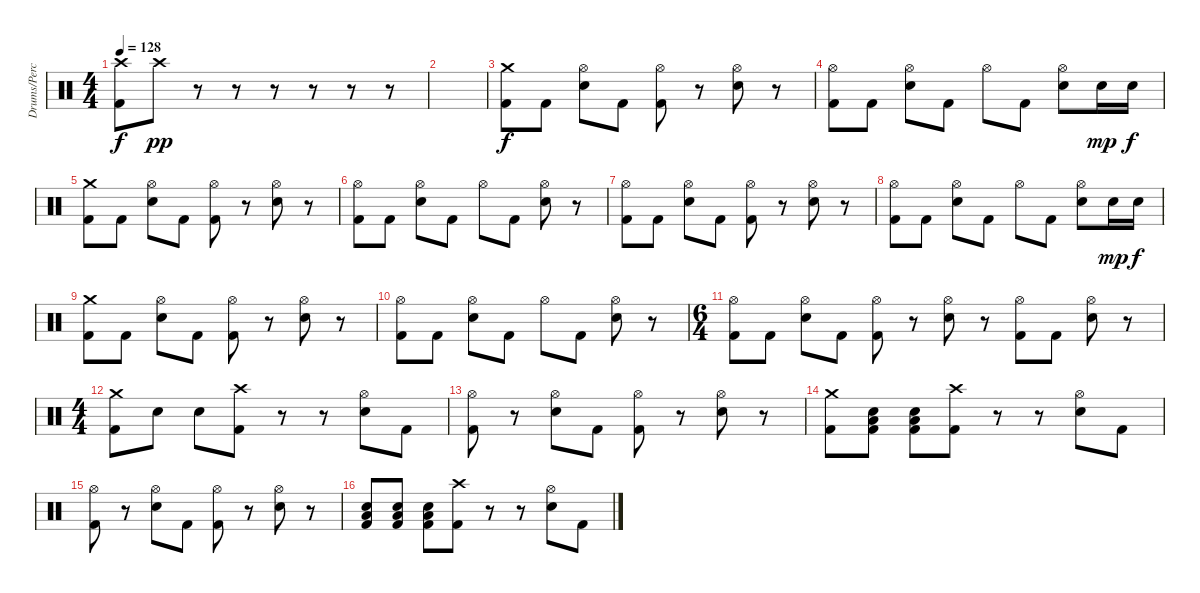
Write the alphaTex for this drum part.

\track ("Drums/Percussion" "Drums/Perc") {instrument percussion}
\staff {score}
\articulation defaults
\ts (4 4)
\tempo 128
\clef neutral
\ks c
("Crash high (hit)" "Kick (hit) 2").8{dy f} "Crash high (hit)".8{dy pp} r.8 r.8 r.8 r.8 r.8 r.8 |
|
("Crash medium (hit)" "Kick (hit) 2").8{dy f} "Kick (hit) 2".8 ("Hi-Hat (open)" "Electric Snare (hit)").8 "Kick (hit) 2".8 ("Hi-Hat (open)" "Kick (hit) 2").8 r.8 ("Hi-Hat (open)" "Electric Snare (hit)").8 r.8 |
("Hi-Hat (open)" "Kick (hit) 2").8 "Kick (hit) 2".8 ("Hi-Hat (open)" "Electric Snare (hit)").8 "Kick (hit) 2".8 "Hi-Hat (open)".8 "Kick (hit) 2".8 ("Hi-Hat (open)" "Electric Snare (hit)").8 "Electric Snare (hit)".16{dy mp} "Electric Snare (hit)".16{dy f} |
("Crash medium (hit)" "Kick (hit) 2").8 "Kick (hit) 2".8 ("Hi-Hat (open)" "Electric Snare (hit)").8 "Kick (hit) 2".8 ("Hi-Hat (open)" "Kick (hit) 2").8 r.8 ("Hi-Hat (open)" "Electric Snare (hit)").8 r.8 |
("Hi-Hat (open)" "Kick (hit) 2").8 "Kick (hit) 2".8 ("Hi-Hat (open)" "Electric Snare (hit)").8 "Kick (hit) 2".8 "Hi-Hat (open)".8 "Kick (hit) 2".8 ("Hi-Hat (open)" "Electric Snare (hit)").8 r.8 |
("Hi-Hat (open)" "Kick (hit) 2").8 "Kick (hit) 2".8 ("Hi-Hat (open)" "Electric Snare (hit)").8 "Kick (hit) 2".8 ("Hi-Hat (open)" "Kick (hit) 2").8 r.8 ("Hi-Hat (open)" "Electric Snare (hit)").8 r.8 |
("Hi-Hat (open)" "Kick (hit) 2").8 "Kick (hit) 2".8 ("Hi-Hat (open)" "Electric Snare (hit)").8 "Kick (hit) 2".8 "Hi-Hat (open)".8 "Kick (hit) 2".8 ("Hi-Hat (open)" "Electric Snare (hit)").8 "Electric Snare (hit)".16{dy mp} "Electric Snare (hit)".16{dy f} |
("Crash medium (hit)" "Kick (hit) 2").8 "Kick (hit) 2".8 ("Hi-Hat (open)" "Electric Snare (hit)").8 "Kick (hit) 2".8 ("Hi-Hat (open)" "Kick (hit) 2").8 r.8 ("Hi-Hat (open)" "Electric Snare (hit)").8 r.8 |
("Hi-Hat (open)" "Kick (hit) 2").8 "Kick (hit) 2".8 ("Hi-Hat (open)" "Electric Snare (hit)").8 "Kick (hit) 2".8 "Hi-Hat (open)".8 "Kick (hit) 2".8 ("Hi-Hat (open)" "Electric Snare (hit)").8 r.8 |
\ts (6 4)
("Hi-Hat (open)" "Kick (hit) 2").8 "Kick (hit) 2".8 ("Hi-Hat (open)" "Electric Snare (hit)").8 "Kick (hit) 2".8 ("Hi-Hat (open)" "Kick (hit) 2").8 r.8 ("Hi-Hat (open)" "Electric Snare (hit)").8 r.8 ("Hi-Hat (open)" "Kick (hit) 2").8 "Kick (hit) 2".8 ("Hi-Hat (open)" "Electric Snare (hit)").8 r.8 |
\ts (4 4)
("Crash medium (hit)" "Kick (hit) 2").8 "Electric Snare (hit)".8 "Electric Snare (hit)".8 ("Crash high (hit)" "Kick (hit) 2").8 r.8 r.8 ("Hi-Hat (open)" "Electric Snare (hit)").8 "Kick (hit) 2".8 |
("Hi-Hat (open)" "Kick (hit) 2").8 r.8 ("Hi-Hat (open)" "Electric Snare (hit)").8 "Kick (hit) 2".8 ("Hi-Hat (open)" "Kick (hit) 2").8 r.8 ("Hi-Hat (open)" "Electric Snare (hit)").8 r.8 |
("Crash medium (hit)" "Kick (hit) 2").8 ("Electric Snare (hit)" "Low Floor Tom (hit)" "Kick (hit) 2").8 ("Electric Snare (hit)" "Low Floor Tom (hit)" "Kick (hit) 2").8 ("Crash high (hit)" "Kick (hit) 2").8 r.8 r.8 ("Hi-Hat (open)" "Electric Snare (hit)").8 "Kick (hit) 2".8 |
("Hi-Hat (open)" "Kick (hit) 2").8 r.8 ("Hi-Hat (open)" "Electric Snare (hit)").8 "Kick (hit) 2".8 ("Hi-Hat (open)" "Kick (hit) 2").8 r.8 ("Hi-Hat (open)" "Electric Snare (hit)").8 r.8 |
("Electric Snare (hit)" "Low Floor Tom (hit)" "Kick (hit) 2").8 ("Electric Snare (hit)" "Low Floor Tom (hit)" "Kick (hit) 2").8 ("Electric Snare (hit)" "Low Floor Tom (hit)" "Kick (hit) 2").8 ("Crash high (hit)" "Kick (hit) 2").8 r.8 r.8 ("Hi-Hat (open)" "Electric Snare (hit)").8 "Kick (hit) 2".8
